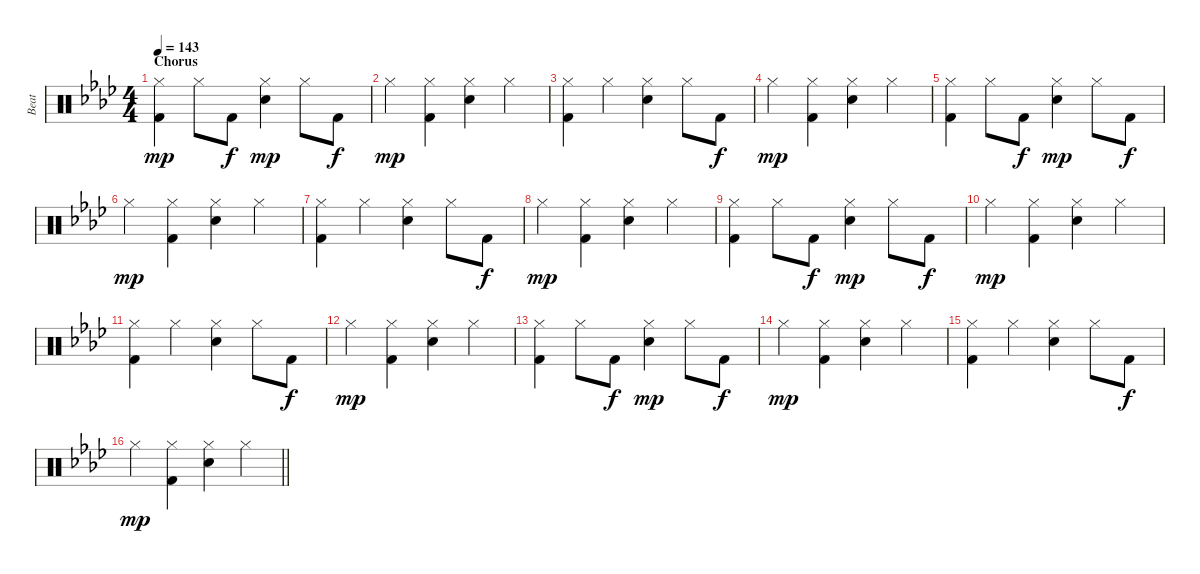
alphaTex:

\track ("Beat" "Beat") {instrument percussion}
\staff {score}
\articulation defaults
\ts (4 4)
\section ("" "Chorus")
\tempo 143
\clef neutral
\ks ab
("Hi-Hat (closed)" "Kick (hit) 2").4{dy mp} "Hi-Hat (closed)".8 "Kick (hit) 2".8{dy f} ("Hi-Hat (closed)" "Hand Clap (hit)").4{dy mp} "Hi-Hat (closed)".8 "Kick (hit) 2".8{dy f} |
"Hi-Hat (closed)".4{dy mp} ("Hi-Hat (closed)" "Kick (hit) 2").4 ("Hi-Hat (closed)" "Hand Clap (hit)").4 "Hi-Hat (closed)".4 |
("Hi-Hat (closed)" "Kick (hit) 2").4 "Hi-Hat (closed)".4 ("Hi-Hat (closed)" "Hand Clap (hit)").4 "Hi-Hat (closed)".8 "Kick (hit) 2".8{dy f} |
"Hi-Hat (closed)".4{dy mp} ("Hi-Hat (closed)" "Kick (hit) 2").4 ("Hi-Hat (closed)" "Hand Clap (hit)").4 "Hi-Hat (closed)".4 |
("Hi-Hat (closed)" "Kick (hit) 2").4 "Hi-Hat (closed)".8 "Kick (hit) 2".8{dy f} ("Hi-Hat (closed)" "Hand Clap (hit)").4{dy mp} "Hi-Hat (closed)".8 "Kick (hit) 2".8{dy f} |
"Hi-Hat (closed)".4{dy mp} ("Hi-Hat (closed)" "Kick (hit) 2").4 ("Hi-Hat (closed)" "Hand Clap (hit)").4 "Hi-Hat (closed)".4 |
("Hi-Hat (closed)" "Kick (hit) 2").4 "Hi-Hat (closed)".4 ("Hi-Hat (closed)" "Hand Clap (hit)").4 "Hi-Hat (closed)".8 "Kick (hit) 2".8{dy f} |
"Hi-Hat (closed)".4{dy mp} ("Hi-Hat (closed)" "Kick (hit) 2").4 ("Hi-Hat (closed)" "Hand Clap (hit)").4 "Hi-Hat (closed)".4 |
("Hi-Hat (closed)" "Kick (hit) 2").4 "Hi-Hat (closed)".8 "Kick (hit) 2".8{dy f} ("Hi-Hat (closed)" "Hand Clap (hit)").4{dy mp} "Hi-Hat (closed)".8 "Kick (hit) 2".8{dy f} |
"Hi-Hat (closed)".4{dy mp} ("Hi-Hat (closed)" "Kick (hit) 2").4 ("Hi-Hat (closed)" "Hand Clap (hit)").4 "Hi-Hat (closed)".4 |
("Hi-Hat (closed)" "Kick (hit) 2").4 "Hi-Hat (closed)".4 ("Hi-Hat (closed)" "Hand Clap (hit)").4 "Hi-Hat (closed)".8 "Kick (hit) 2".8{dy f} |
"Hi-Hat (closed)".4{dy mp} ("Hi-Hat (closed)" "Kick (hit) 2").4 ("Hi-Hat (closed)" "Hand Clap (hit)").4 "Hi-Hat (closed)".4 |
("Hi-Hat (closed)" "Kick (hit) 2").4 "Hi-Hat (closed)".8 "Kick (hit) 2".8{dy f} ("Hi-Hat (closed)" "Hand Clap (hit)").4{dy mp} "Hi-Hat (closed)".8 "Kick (hit) 2".8{dy f} |
"Hi-Hat (closed)".4{dy mp} ("Hi-Hat (closed)" "Kick (hit) 2").4 ("Hi-Hat (closed)" "Hand Clap (hit)").4 "Hi-Hat (closed)".4 |
("Hi-Hat (closed)" "Kick (hit) 2").4 "Hi-Hat (closed)".4 ("Hi-Hat (closed)" "Hand Clap (hit)").4 "Hi-Hat (closed)".8 "Kick (hit) 2".8{dy f} |
\barLineRight lightlight "Hi-Hat (closed)".4{dy mp}
("Hi-Hat (closed)" "Kick (hit) 2").4 ("Hi-Hat (closed)" "Hand Clap (hit)").4 "Hi-Hat (closed)".4
